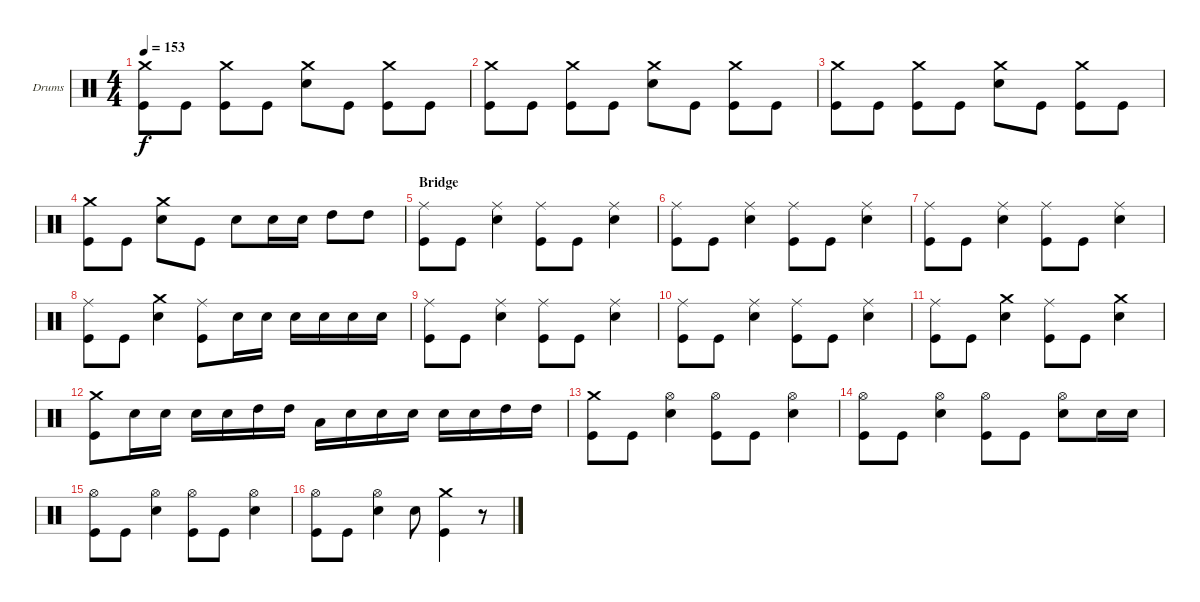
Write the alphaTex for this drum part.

\bracketExtendMode groupsimilarinstruments
\firstSystemTrackNameOrientation horizontal
\otherSystemsTrackNameOrientation horizontal
\track ("Drumkit" "Drums") {instrument percussion}
\staff {score}
\articulation defaults
\ts (4 4)
\tempo 153
\clef neutral
\ks c
("Crash medium (hit)" "Kick (hit)").8{dy f} "Kick (hit)".8 ("Crash medium (hit)" "Kick (hit)").8 "Kick (hit)".8 ("Crash medium (hit)" "Snare (hit) 2").8 "Kick (hit)".8 ("Crash medium (hit)" "Kick (hit)").8 "Kick (hit)".8 |
("Crash medium (hit)" "Kick (hit)").8 "Kick (hit)".8 ("Crash medium (hit)" "Kick (hit)").8 "Kick (hit)".8 ("Crash medium (hit)" "Snare (hit) 2").8 "Kick (hit)".8 ("Crash medium (hit)" "Kick (hit)").8 "Kick (hit)".8 |
("Crash medium (hit)" "Kick (hit)").8 "Kick (hit)".8 ("Crash medium (hit)" "Kick (hit)").8 "Kick (hit)".8 ("Crash medium (hit)" "Snare (hit) 2").8 "Kick (hit)".8 ("Crash medium (hit)" "Kick (hit)").8 "Kick (hit)".8 |
("Crash medium (hit)" "Kick (hit)").8 "Kick (hit)".8 ("Crash medium (hit)" "Snare (hit) 2").8 "Kick (hit)".8 "Snare (hit) 2".8 "Snare (hit) 2".16 "Snare (hit) 2".16 "High Tom (hit)".8 "High Tom (hit)".8 |
\section ("" "Bridge")
("Ride (middle)" "Kick (hit)").8 "Kick (hit)".8 ("Ride (middle)" "Snare (hit) 2").4 ("Ride (middle)" "Kick (hit)").8 "Kick (hit)".8 ("Ride (middle)" "Snare (hit) 2").4 |
("Ride (middle)" "Kick (hit)").8 "Kick (hit)".8 ("Ride (middle)" "Snare (hit) 2").4 ("Ride (middle)" "Kick (hit)").8 "Kick (hit)".8 ("Ride (middle)" "Snare (hit) 2").4 |
("Ride (middle)" "Kick (hit)").8 "Kick (hit)".8 ("Ride (middle)" "Snare (hit) 2").4 ("Ride (middle)" "Kick (hit)").8 "Kick (hit)".8 ("Ride (middle)" "Snare (hit) 2").4 |
("Ride (middle)" "Kick (hit)").8 "Kick (hit)".8 ("Crash medium (hit)" "Snare (hit) 2").4 ("Ride (middle)" "Kick (hit)").8 "Snare (hit) 2".16 "Snare (hit) 2".16 "Snare (hit) 2".16 "Snare (hit) 2".16 "Snare (hit) 2".16 "Snare (hit) 2".16 |
("Ride (middle)" "Kick (hit)").8 "Kick (hit)".8 ("Ride (middle)" "Snare (hit) 2").4 ("Ride (middle)" "Kick (hit)").8 "Kick (hit)".8 ("Ride (middle)" "Snare (hit) 2").4 |
("Ride (middle)" "Kick (hit)").8 "Kick (hit)".8 ("Ride (middle)" "Snare (hit) 2").4 ("Ride (middle)" "Kick (hit)").8 "Kick (hit)".8 ("Ride (middle)" "Snare (hit) 2").4 |
("Ride (middle)" "Kick (hit)").8 "Kick (hit)".8 ("Crash medium (hit)" "Snare (hit) 2").4 ("Ride (middle)" "Kick (hit)").8 "Kick (hit)".8 ("Crash medium (hit)" "Snare (hit) 2").4 |
("Crash medium (hit)" "Kick (hit)").8 "Snare (hit) 2".16 "Snare (hit) 2".16 "Snare (hit) 2".16 "Snare (hit) 2".16 "High Tom (hit)".16 "High Tom (hit)".16 "Low Tom (hit)".16 "Snare (hit) 2".16 "Snare (hit) 2".16 "Snare (hit) 2".16 "Snare (hit) 2".16 "Snare (hit) 2".16 "High Tom (hit)".16 "High Tom (hit)".16 |
("Crash medium (hit)" "Kick (hit)").8 "Kick (hit)".8 ("Hi-Hat (open)" "Snare (hit) 2").4 ("Hi-Hat (open)" "Kick (hit)").8 "Kick (hit)".8 ("Hi-Hat (open)" "Snare (hit) 2").4 |
("Hi-Hat (open)" "Kick (hit)").8 "Kick (hit)".8 ("Hi-Hat (open)" "Snare (hit) 2").4 ("Hi-Hat (open)" "Kick (hit)").8 "Kick (hit)".8 ("Hi-Hat (open)" "Snare (hit) 2").8 "Snare (hit) 2".16 "Snare (hit) 2".16 |
("Hi-Hat (open)" "Kick (hit)").8 "Kick (hit)".8 ("Hi-Hat (open)" "Snare (hit) 2").4 ("Hi-Hat (open)" "Kick (hit)").8 "Kick (hit)".8 ("Hi-Hat (open)" "Snare (hit) 2").4 |
("Hi-Hat (open)" "Kick (hit)").8 "Kick (hit)".8 ("Hi-Hat (open)" "Snare (hit) 2").4 "Snare (hit) 2".8 ("Crash medium (hit)" "Kick (hit)").4 r.8
